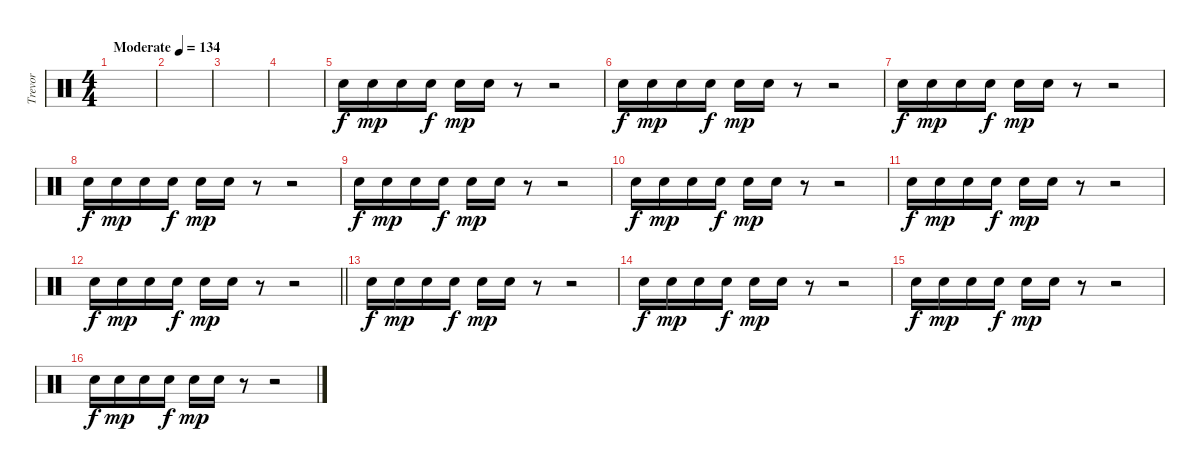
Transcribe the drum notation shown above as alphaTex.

\track ("Trevor" "Trevor") {instrument percussion}
\staff {score}
\articulation defaults
\ts (4 4)
\tempo (134 "Moderate")
\clef neutral
\ks c
|
|
|
|
"Snare (hit) 2".16 "Snare (hit) 2".16{dy mp} "Snare (hit) 2".16 "Snare (hit) 2".16{dy f} "Snare (hit) 2".16{dy mp} "Snare (hit) 2".16 r.8 r.2 |
"Snare (hit) 2".16{dy f} "Snare (hit) 2".16{dy mp} "Snare (hit) 2".16 "Snare (hit) 2".16{dy f} "Snare (hit) 2".16{dy mp} "Snare (hit) 2".16 r.8 r.2 |
"Snare (hit) 2".16{dy f} "Snare (hit) 2".16{dy mp} "Snare (hit) 2".16 "Snare (hit) 2".16{dy f} "Snare (hit) 2".16{dy mp} "Snare (hit) 2".16 r.8 r.2 |
"Snare (hit) 2".16{dy f} "Snare (hit) 2".16{dy mp} "Snare (hit) 2".16 "Snare (hit) 2".16{dy f} "Snare (hit) 2".16{dy mp} "Snare (hit) 2".16 r.8 r.2 |
"Snare (hit) 2".16{dy f} "Snare (hit) 2".16{dy mp} "Snare (hit) 2".16 "Snare (hit) 2".16{dy f} "Snare (hit) 2".16{dy mp} "Snare (hit) 2".16 r.8 r.2 |
"Snare (hit) 2".16{dy f} "Snare (hit) 2".16{dy mp} "Snare (hit) 2".16 "Snare (hit) 2".16{dy f} "Snare (hit) 2".16{dy mp} "Snare (hit) 2".16 r.8 r.2 |
"Snare (hit) 2".16{dy f} "Snare (hit) 2".16{dy mp} "Snare (hit) 2".16 "Snare (hit) 2".16{dy f} "Snare (hit) 2".16{dy mp} "Snare (hit) 2".16 r.8 r.2 |
\barLineRight lightlight "Snare (hit) 2".16{dy f} "Snare (hit) 2".16{dy mp} "Snare (hit) 2".16 "Snare (hit) 2".16{dy f} "Snare (hit) 2".16{dy mp} "Snare (hit) 2".16
r.8 r.2 |
\section ("" "")
"Snare (hit) 2".16{dy f} "Snare (hit) 2".16{dy mp} "Snare (hit) 2".16 "Snare (hit) 2".16{dy f} "Snare (hit) 2".16{dy mp} "Snare (hit) 2".16 r.8 r.2 |
"Snare (hit) 2".16{dy f} "Snare (hit) 2".16{dy mp} "Snare (hit) 2".16 "Snare (hit) 2".16{dy f} "Snare (hit) 2".16{dy mp} "Snare (hit) 2".16 r.8 r.2 |
"Snare (hit) 2".16{dy f} "Snare (hit) 2".16{dy mp} "Snare (hit) 2".16 "Snare (hit) 2".16{dy f} "Snare (hit) 2".16{dy mp} "Snare (hit) 2".16 r.8 r.2 |
"Snare (hit) 2".16{dy f} "Snare (hit) 2".16{dy mp} "Snare (hit) 2".16 "Snare (hit) 2".16{dy f} "Snare (hit) 2".16{dy mp} "Snare (hit) 2".16 r.8 r.2
